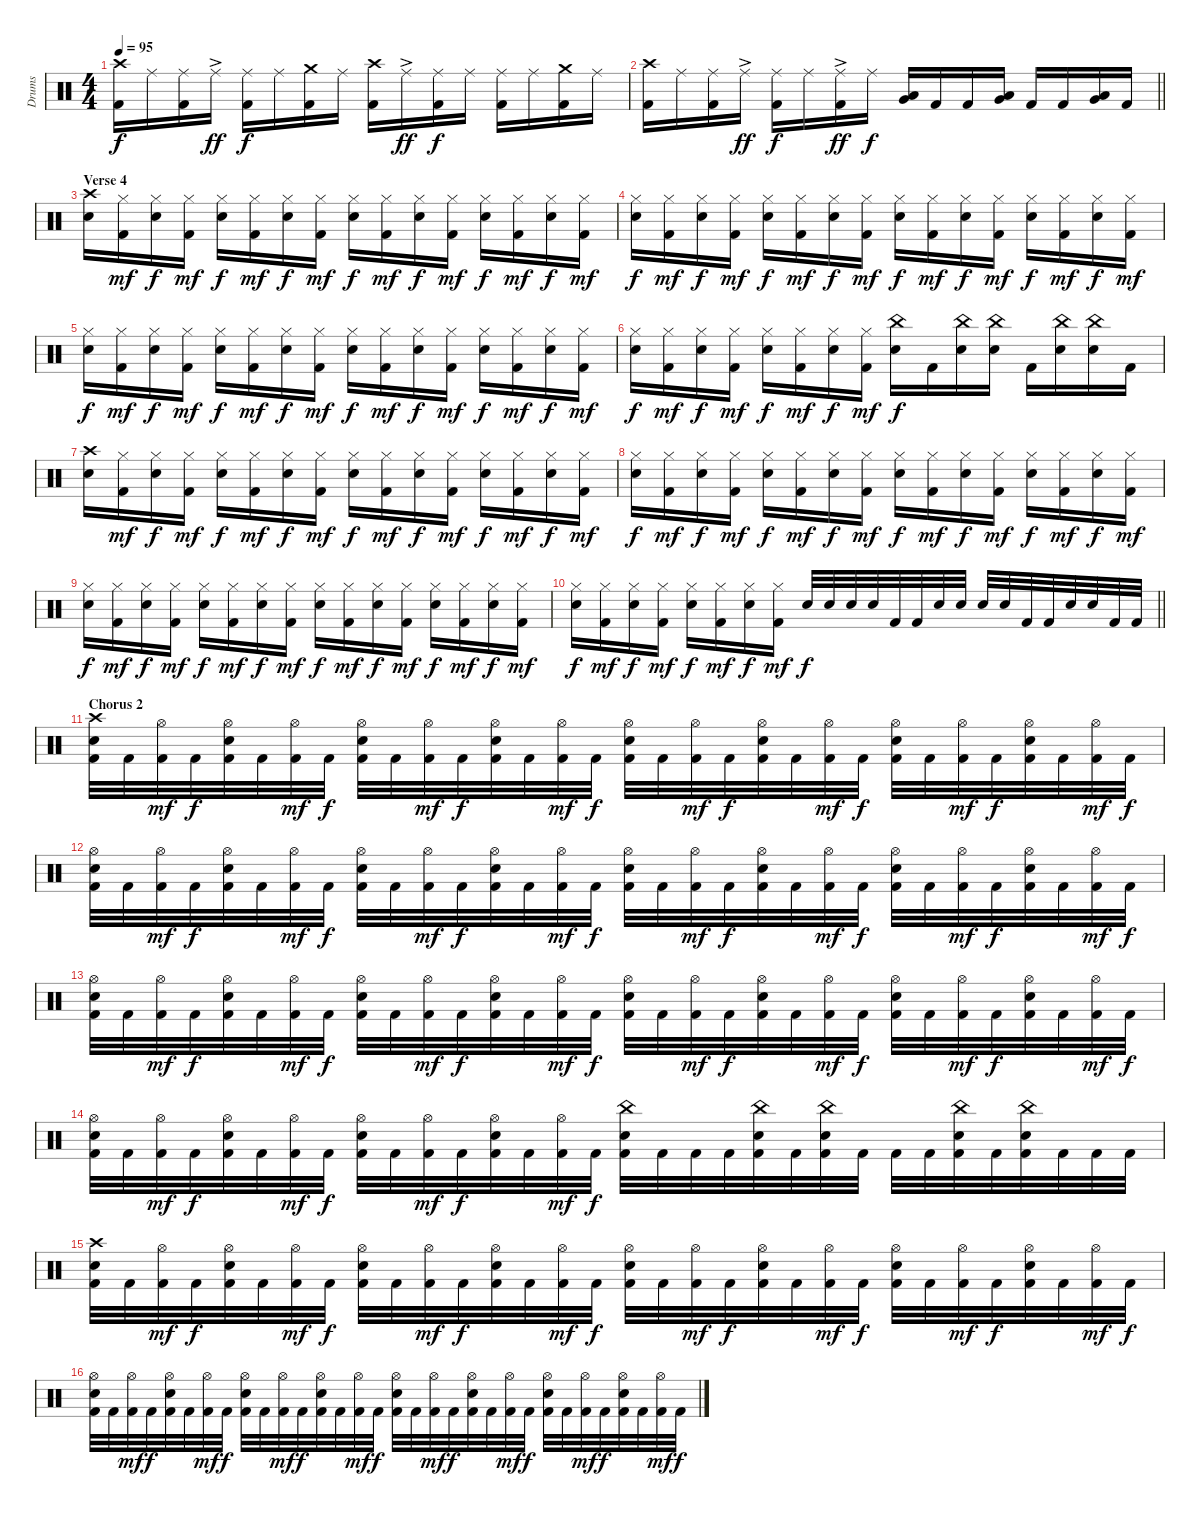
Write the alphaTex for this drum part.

\track ("Drums" "Drums") {instrument percussion}
\staff {score}
\articulation defaults
\ts (4 4)
\tempo 95
\clef neutral
\ks c
("Crash high (hit)" "Kick (hit) 2").16{dy f} "Ride (middle)".16 ("Ride (middle)" "Kick (hit) 2").16 "Ride (middle)"{ac}.16{dy ff} ("Ride (middle)" "Kick (hit) 2").16{dy f} "Ride (middle)".16 ("Crash medium (hit)" "Kick (hit) 2").16 "Ride (middle)".16 ("Crash high (hit)" "Kick (hit) 2").16 "Ride (middle)"{ac}.16{dy ff} ("Ride (middle)" "Kick (hit) 2").16{dy f} "Ride (middle)".16 ("Ride (middle)" "Kick (hit) 2").16 "Ride (middle)".16 ("Crash medium (hit)" "Kick (hit) 2").16 "Ride (middle)".16 |
\barLineRight lightlight
("Crash high (hit)" "Kick (hit) 2").16 "Ride (middle)".16 ("Ride (middle)" "Kick (hit) 2").16 "Ride (middle)"{ac}.16{dy ff} ("Ride (middle)" "Kick (hit) 2").16{dy f} "Ride (middle)".16 ("Ride (middle)"{ac} "Kick (hit) 2").16{dy ff} "Ride (middle)".16{dy f} ("Very Low Tom (hit)" "Low Floor Tom (hit)").16 "Kick (hit) 2".16 "Kick (hit) 2".16 ("Very Low Tom (hit)" "Low Floor Tom (hit)").16 "Kick (hit) 2".16 "Kick (hit) 2".16 ("Very Low Tom (hit)" "Low Floor Tom (hit)").16 "Kick (hit) 2".16 |
\section ("" "Verse 4")
("Crash high (hit)" "Snare (hit) 2").16 ("Hi-Hat (closed)" "Kick (hit) 2").16{dy mf} ("Hi-Hat (closed)" "Snare (hit) 2").16{dy f} ("Hi-Hat (closed)" "Kick (hit) 2").16{dy mf} ("Hi-Hat (closed)" "Snare (hit) 2").16{dy f} ("Hi-Hat (closed)" "Kick (hit) 2").16{dy mf} ("Hi-Hat (closed)" "Snare (hit) 2").16{dy f} ("Hi-Hat (closed)" "Kick (hit) 2").16{dy mf} ("Hi-Hat (closed)" "Snare (hit) 2").16{dy f} ("Hi-Hat (closed)" "Kick (hit) 2").16{dy mf} ("Hi-Hat (closed)" "Snare (hit) 2").16{dy f} ("Hi-Hat (closed)" "Kick (hit) 2").16{dy mf} ("Hi-Hat (closed)" "Snare (hit) 2").16{dy f} ("Hi-Hat (closed)" "Kick (hit) 2").16{dy mf} ("Hi-Hat (closed)" "Snare (hit) 2").16{dy f} ("Hi-Hat (closed)" "Kick (hit) 2").16{dy mf} |
("Hi-Hat (closed)" "Snare (hit) 2").16{dy f} ("Hi-Hat (closed)" "Kick (hit) 2").16{dy mf} ("Hi-Hat (closed)" "Snare (hit) 2").16{dy f} ("Hi-Hat (closed)" "Kick (hit) 2").16{dy mf} ("Hi-Hat (closed)" "Snare (hit) 2").16{dy f} ("Hi-Hat (closed)" "Kick (hit) 2").16{dy mf} ("Hi-Hat (closed)" "Snare (hit) 2").16{dy f} ("Hi-Hat (closed)" "Kick (hit) 2").16{dy mf} ("Hi-Hat (closed)" "Snare (hit) 2").16{dy f} ("Hi-Hat (closed)" "Kick (hit) 2").16{dy mf} ("Hi-Hat (closed)" "Snare (hit) 2").16{dy f} ("Hi-Hat (closed)" "Kick (hit) 2").16{dy mf} ("Hi-Hat (closed)" "Snare (hit) 2").16{dy f} ("Hi-Hat (closed)" "Kick (hit) 2").16{dy mf} ("Hi-Hat (closed)" "Snare (hit) 2").16{dy f} ("Hi-Hat (closed)" "Kick (hit) 2").16{dy mf} |
("Hi-Hat (closed)" "Snare (hit) 2").16{dy f} ("Hi-Hat (closed)" "Kick (hit) 2").16{dy mf} ("Hi-Hat (closed)" "Snare (hit) 2").16{dy f} ("Hi-Hat (closed)" "Kick (hit) 2").16{dy mf} ("Hi-Hat (closed)" "Snare (hit) 2").16{dy f} ("Hi-Hat (closed)" "Kick (hit) 2").16{dy mf} ("Hi-Hat (closed)" "Snare (hit) 2").16{dy f} ("Hi-Hat (closed)" "Kick (hit) 2").16{dy mf} ("Hi-Hat (closed)" "Snare (hit) 2").16{dy f} ("Hi-Hat (closed)" "Kick (hit) 2").16{dy mf} ("Hi-Hat (closed)" "Snare (hit) 2").16{dy f} ("Hi-Hat (closed)" "Kick (hit) 2").16{dy mf} ("Hi-Hat (closed)" "Snare (hit) 2").16{dy f} ("Hi-Hat (closed)" "Kick (hit) 2").16{dy mf} ("Hi-Hat (closed)" "Snare (hit) 2").16{dy f} ("Hi-Hat (closed)" "Kick (hit) 2").16{dy mf} |
("Hi-Hat (closed)" "Snare (hit) 2").16{dy f} ("Hi-Hat (closed)" "Kick (hit) 2").16{dy mf} ("Hi-Hat (closed)" "Snare (hit) 2").16{dy f} ("Hi-Hat (closed)" "Kick (hit) 2").16{dy mf} ("Hi-Hat (closed)" "Snare (hit) 2").16{dy f} ("Hi-Hat (closed)" "Kick (hit) 2").16{dy mf} ("Hi-Hat (closed)" "Snare (hit) 2").16{dy f} ("Hi-Hat (closed)" "Kick (hit) 2").16{dy mf} ("China (hit)" "Snare (hit) 2").16{dy f} "Kick (hit) 2".16 ("China (hit)" "Snare (hit) 2").16 ("China (hit)" "Snare (hit) 2").16 "Kick (hit) 2".16 ("China (hit)" "Snare (hit) 2").16 ("China (hit)" "Snare (hit) 2").16 "Kick (hit) 2".16 |
("Crash high (hit)" "Snare (hit) 2").16 ("Hi-Hat (closed)" "Kick (hit) 2").16{dy mf} ("Hi-Hat (closed)" "Snare (hit) 2").16{dy f} ("Hi-Hat (closed)" "Kick (hit) 2").16{dy mf} ("Hi-Hat (closed)" "Snare (hit) 2").16{dy f} ("Hi-Hat (closed)" "Kick (hit) 2").16{dy mf} ("Hi-Hat (closed)" "Snare (hit) 2").16{dy f} ("Hi-Hat (closed)" "Kick (hit) 2").16{dy mf} ("Hi-Hat (closed)" "Snare (hit) 2").16{dy f} ("Hi-Hat (closed)" "Kick (hit) 2").16{dy mf} ("Hi-Hat (closed)" "Snare (hit) 2").16{dy f} ("Hi-Hat (closed)" "Kick (hit) 2").16{dy mf} ("Hi-Hat (closed)" "Snare (hit) 2").16{dy f} ("Hi-Hat (closed)" "Kick (hit) 2").16{dy mf} ("Hi-Hat (closed)" "Snare (hit) 2").16{dy f} ("Hi-Hat (closed)" "Kick (hit) 2").16{dy mf} |
("Hi-Hat (closed)" "Snare (hit) 2").16{dy f} ("Hi-Hat (closed)" "Kick (hit) 2").16{dy mf} ("Hi-Hat (closed)" "Snare (hit) 2").16{dy f} ("Hi-Hat (closed)" "Kick (hit) 2").16{dy mf} ("Hi-Hat (closed)" "Snare (hit) 2").16{dy f} ("Hi-Hat (closed)" "Kick (hit) 2").16{dy mf} ("Hi-Hat (closed)" "Snare (hit) 2").16{dy f} ("Hi-Hat (closed)" "Kick (hit) 2").16{dy mf} ("Hi-Hat (closed)" "Snare (hit) 2").16{dy f} ("Hi-Hat (closed)" "Kick (hit) 2").16{dy mf} ("Hi-Hat (closed)" "Snare (hit) 2").16{dy f} ("Hi-Hat (closed)" "Kick (hit) 2").16{dy mf} ("Hi-Hat (closed)" "Snare (hit) 2").16{dy f} ("Hi-Hat (closed)" "Kick (hit) 2").16{dy mf} ("Hi-Hat (closed)" "Snare (hit) 2").16{dy f} ("Hi-Hat (closed)" "Kick (hit) 2").16{dy mf} |
("Hi-Hat (closed)" "Snare (hit) 2").16{dy f} ("Hi-Hat (closed)" "Kick (hit) 2").16{dy mf} ("Hi-Hat (closed)" "Snare (hit) 2").16{dy f} ("Hi-Hat (closed)" "Kick (hit) 2").16{dy mf} ("Hi-Hat (closed)" "Snare (hit) 2").16{dy f} ("Hi-Hat (closed)" "Kick (hit) 2").16{dy mf} ("Hi-Hat (closed)" "Snare (hit) 2").16{dy f} ("Hi-Hat (closed)" "Kick (hit) 2").16{dy mf} ("Hi-Hat (closed)" "Snare (hit) 2").16{dy f} ("Hi-Hat (closed)" "Kick (hit) 2").16{dy mf} ("Hi-Hat (closed)" "Snare (hit) 2").16{dy f} ("Hi-Hat (closed)" "Kick (hit) 2").16{dy mf} ("Hi-Hat (closed)" "Snare (hit) 2").16{dy f} ("Hi-Hat (closed)" "Kick (hit) 2").16{dy mf} ("Hi-Hat (closed)" "Snare (hit) 2").16{dy f} ("Hi-Hat (closed)" "Kick (hit) 2").16{dy mf} |
\barLineRight lightlight
("Hi-Hat (closed)" "Snare (hit) 2").16{dy f} ("Hi-Hat (closed)" "Kick (hit) 2").16{dy mf} ("Hi-Hat (closed)" "Snare (hit) 2").16{dy f} ("Hi-Hat (closed)" "Kick (hit) 2").16{dy mf} ("Hi-Hat (closed)" "Snare (hit) 2").16{dy f} ("Hi-Hat (closed)" "Kick (hit) 2").16{dy mf} ("Hi-Hat (closed)" "Snare (hit) 2").16{dy f} ("Hi-Hat (closed)" "Kick (hit) 2").16{dy mf} "Snare (hit) 2".32{dy f} "Snare (hit) 2".32 "Snare (hit) 2".32 "Snare (hit) 2".32 "Kick (hit) 2".32 "Kick (hit) 2".32 "Snare (hit) 2".32 "Snare (hit) 2".32 "Snare (hit) 2".32 "Snare (hit) 2".32 "Kick (hit) 2".32 "Kick (hit) 2".32 "Snare (hit) 2".32 "Snare (hit) 2".32 "Kick (hit) 2".32 "Kick (hit) 2".32 |
\section ("" "Chorus 2")
("Crash high (hit)" "Snare (hit) 2" "Kick (hit) 2").32 "Kick (hit) 2".32 ("Hi-Hat (open)" "Kick (hit) 2").32{dy mf} "Kick (hit) 2".32{dy f} ("Hi-Hat (open)" "Snare (hit) 2" "Kick (hit) 2").32 "Kick (hit) 2".32 ("Hi-Hat (open)" "Kick (hit) 2").32{dy mf} "Kick (hit) 2".32{dy f} ("Hi-Hat (open)" "Snare (hit) 2" "Kick (hit) 2").32 "Kick (hit) 2".32 ("Hi-Hat (open)" "Kick (hit) 2").32{dy mf} "Kick (hit) 2".32{dy f} ("Hi-Hat (open)" "Snare (hit) 2" "Kick (hit) 2").32 "Kick (hit) 2".32 ("Hi-Hat (open)" "Kick (hit) 2").32{dy mf} "Kick (hit) 2".32{dy f} ("Hi-Hat (open)" "Snare (hit) 2" "Kick (hit) 2").32 "Kick (hit) 2".32 ("Hi-Hat (open)" "Kick (hit) 2").32{dy mf} "Kick (hit) 2".32{dy f} ("Hi-Hat (open)" "Snare (hit) 2" "Kick (hit) 2").32 "Kick (hit) 2".32 ("Hi-Hat (open)" "Kick (hit) 2").32{dy mf} "Kick (hit) 2".32{dy f} ("Hi-Hat (open)" "Snare (hit) 2" "Kick (hit) 2").32 "Kick (hit) 2".32 ("Hi-Hat (open)" "Kick (hit) 2").32{dy mf} "Kick (hit) 2".32{dy f} ("Hi-Hat (open)" "Snare (hit) 2" "Kick (hit) 2").32 "Kick (hit) 2".32 ("Hi-Hat (open)" "Kick (hit) 2").32{dy mf} "Kick (hit) 2".32{dy f} |
("Hi-Hat (open)" "Snare (hit) 2" "Kick (hit) 2").32 "Kick (hit) 2".32 ("Hi-Hat (open)" "Kick (hit) 2").32{dy mf} "Kick (hit) 2".32{dy f} ("Hi-Hat (open)" "Snare (hit) 2" "Kick (hit) 2").32 "Kick (hit) 2".32 ("Hi-Hat (open)" "Kick (hit) 2").32{dy mf} "Kick (hit) 2".32{dy f} ("Hi-Hat (open)" "Snare (hit) 2" "Kick (hit) 2").32 "Kick (hit) 2".32 ("Hi-Hat (open)" "Kick (hit) 2").32{dy mf} "Kick (hit) 2".32{dy f} ("Hi-Hat (open)" "Snare (hit) 2" "Kick (hit) 2").32 "Kick (hit) 2".32 ("Hi-Hat (open)" "Kick (hit) 2").32{dy mf} "Kick (hit) 2".32{dy f} ("Hi-Hat (open)" "Snare (hit) 2" "Kick (hit) 2").32 "Kick (hit) 2".32 ("Hi-Hat (open)" "Kick (hit) 2").32{dy mf} "Kick (hit) 2".32{dy f} ("Hi-Hat (open)" "Snare (hit) 2" "Kick (hit) 2").32 "Kick (hit) 2".32 ("Hi-Hat (open)" "Kick (hit) 2").32{dy mf} "Kick (hit) 2".32{dy f} ("Hi-Hat (open)" "Snare (hit) 2" "Kick (hit) 2").32 "Kick (hit) 2".32 ("Hi-Hat (open)" "Kick (hit) 2").32{dy mf} "Kick (hit) 2".32{dy f} ("Hi-Hat (open)" "Snare (hit) 2" "Kick (hit) 2").32 "Kick (hit) 2".32 ("Hi-Hat (open)" "Kick (hit) 2").32{dy mf} "Kick (hit) 2".32{dy f} |
("Hi-Hat (open)" "Snare (hit) 2" "Kick (hit) 2").32 "Kick (hit) 2".32 ("Hi-Hat (open)" "Kick (hit) 2").32{dy mf} "Kick (hit) 2".32{dy f} ("Hi-Hat (open)" "Snare (hit) 2" "Kick (hit) 2").32 "Kick (hit) 2".32 ("Hi-Hat (open)" "Kick (hit) 2").32{dy mf} "Kick (hit) 2".32{dy f} ("Hi-Hat (open)" "Snare (hit) 2" "Kick (hit) 2").32 "Kick (hit) 2".32 ("Hi-Hat (open)" "Kick (hit) 2").32{dy mf} "Kick (hit) 2".32{dy f} ("Hi-Hat (open)" "Snare (hit) 2" "Kick (hit) 2").32 "Kick (hit) 2".32 ("Hi-Hat (open)" "Kick (hit) 2").32{dy mf} "Kick (hit) 2".32{dy f} ("Hi-Hat (open)" "Snare (hit) 2" "Kick (hit) 2").32 "Kick (hit) 2".32 ("Hi-Hat (open)" "Kick (hit) 2").32{dy mf} "Kick (hit) 2".32{dy f} ("Hi-Hat (open)" "Snare (hit) 2" "Kick (hit) 2").32 "Kick (hit) 2".32 ("Hi-Hat (open)" "Kick (hit) 2").32{dy mf} "Kick (hit) 2".32{dy f} ("Hi-Hat (open)" "Snare (hit) 2" "Kick (hit) 2").32 "Kick (hit) 2".32 ("Hi-Hat (open)" "Kick (hit) 2").32{dy mf} "Kick (hit) 2".32{dy f} ("Hi-Hat (open)" "Snare (hit) 2" "Kick (hit) 2").32 "Kick (hit) 2".32 ("Hi-Hat (open)" "Kick (hit) 2").32{dy mf} "Kick (hit) 2".32{dy f} |
("Hi-Hat (open)" "Snare (hit) 2" "Kick (hit) 2").32 "Kick (hit) 2".32 ("Hi-Hat (open)" "Kick (hit) 2").32{dy mf} "Kick (hit) 2".32{dy f} ("Hi-Hat (open)" "Snare (hit) 2" "Kick (hit) 2").32 "Kick (hit) 2".32 ("Hi-Hat (open)" "Kick (hit) 2").32{dy mf} "Kick (hit) 2".32{dy f} ("Hi-Hat (open)" "Snare (hit) 2" "Kick (hit) 2").32 "Kick (hit) 2".32 ("Hi-Hat (open)" "Kick (hit) 2").32{dy mf} "Kick (hit) 2".32{dy f} ("Hi-Hat (open)" "Snare (hit) 2" "Kick (hit) 2").32 "Kick (hit) 2".32 ("Hi-Hat (open)" "Kick (hit) 2").32{dy mf} "Kick (hit) 2".32{dy f} ("China (hit)" "Snare (hit) 2" "Kick (hit) 2").32 "Kick (hit) 2".32 "Kick (hit) 2".32 "Kick (hit) 2".32 ("China (hit)" "Snare (hit) 2" "Kick (hit) 2").32 "Kick (hit) 2".32 ("China (hit)" "Snare (hit) 2" "Kick (hit) 2").32 "Kick (hit) 2".32 "Kick (hit) 2".32 "Kick (hit) 2".32 ("China (hit)" "Snare (hit) 2" "Kick (hit) 2").32 "Kick (hit) 2".32 ("China (hit)" "Snare (hit) 2" "Kick (hit) 2").32 "Kick (hit) 2".32 "Kick (hit) 2".32 "Kick (hit) 2".32 |
("Crash high (hit)" "Snare (hit) 2" "Kick (hit) 2").32 "Kick (hit) 2".32 ("Hi-Hat (open)" "Kick (hit) 2").32{dy mf} "Kick (hit) 2".32{dy f} ("Hi-Hat (open)" "Snare (hit) 2" "Kick (hit) 2").32 "Kick (hit) 2".32 ("Hi-Hat (open)" "Kick (hit) 2").32{dy mf} "Kick (hit) 2".32{dy f} ("Hi-Hat (open)" "Snare (hit) 2" "Kick (hit) 2").32 "Kick (hit) 2".32 ("Hi-Hat (open)" "Kick (hit) 2").32{dy mf} "Kick (hit) 2".32{dy f} ("Hi-Hat (open)" "Snare (hit) 2" "Kick (hit) 2").32 "Kick (hit) 2".32 ("Hi-Hat (open)" "Kick (hit) 2").32{dy mf} "Kick (hit) 2".32{dy f} ("Hi-Hat (open)" "Snare (hit) 2" "Kick (hit) 2").32 "Kick (hit) 2".32 ("Hi-Hat (open)" "Kick (hit) 2").32{dy mf} "Kick (hit) 2".32{dy f} ("Hi-Hat (open)" "Snare (hit) 2" "Kick (hit) 2").32 "Kick (hit) 2".32 ("Hi-Hat (open)" "Kick (hit) 2").32{dy mf} "Kick (hit) 2".32{dy f} ("Hi-Hat (open)" "Snare (hit) 2" "Kick (hit) 2").32 "Kick (hit) 2".32 ("Hi-Hat (open)" "Kick (hit) 2").32{dy mf} "Kick (hit) 2".32{dy f} ("Hi-Hat (open)" "Snare (hit) 2" "Kick (hit) 2").32 "Kick (hit) 2".32 ("Hi-Hat (open)" "Kick (hit) 2").32{dy mf} "Kick (hit) 2".32{dy f} |
("Hi-Hat (open)" "Snare (hit) 2" "Kick (hit) 2").32 "Kick (hit) 2".32 ("Hi-Hat (open)" "Kick (hit) 2").32{dy mf} "Kick (hit) 2".32{dy f} ("Hi-Hat (open)" "Snare (hit) 2" "Kick (hit) 2").32 "Kick (hit) 2".32 ("Hi-Hat (open)" "Kick (hit) 2").32{dy mf} "Kick (hit) 2".32{dy f} ("Hi-Hat (open)" "Snare (hit) 2" "Kick (hit) 2").32 "Kick (hit) 2".32 ("Hi-Hat (open)" "Kick (hit) 2").32{dy mf} "Kick (hit) 2".32{dy f} ("Hi-Hat (open)" "Snare (hit) 2" "Kick (hit) 2").32 "Kick (hit) 2".32 ("Hi-Hat (open)" "Kick (hit) 2").32{dy mf} "Kick (hit) 2".32{dy f} ("Hi-Hat (open)" "Snare (hit) 2" "Kick (hit) 2").32 "Kick (hit) 2".32 ("Hi-Hat (open)" "Kick (hit) 2").32{dy mf} "Kick (hit) 2".32{dy f} ("Hi-Hat (open)" "Snare (hit) 2" "Kick (hit) 2").32 "Kick (hit) 2".32 ("Hi-Hat (open)" "Kick (hit) 2").32{dy mf} "Kick (hit) 2".32{dy f} ("Hi-Hat (open)" "Snare (hit) 2" "Kick (hit) 2").32 "Kick (hit) 2".32 ("Hi-Hat (open)" "Kick (hit) 2").32{dy mf} "Kick (hit) 2".32{dy f} ("Hi-Hat (open)" "Snare (hit) 2" "Kick (hit) 2").32 "Kick (hit) 2".32 ("Hi-Hat (open)" "Kick (hit) 2").32{dy mf} "Kick (hit) 2".32{dy f}
